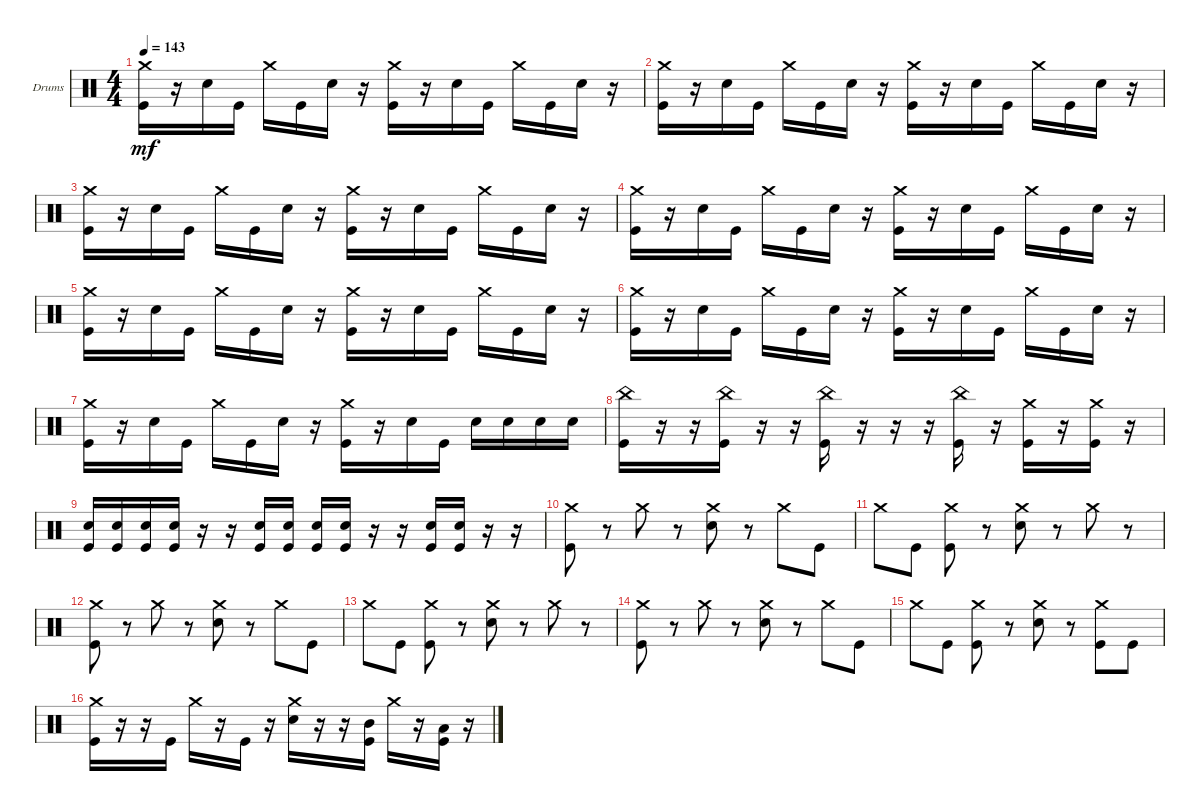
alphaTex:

\defaultSystemsLayout 4
\bracketExtendMode groupsimilarinstruments
\firstSystemTrackNameOrientation horizontal
\otherSystemsTrackNameOrientation horizontal
\track ("Drumkit" "Drums") {instrument percussion}
\staff {score}
\articulation defaults
\ts (4 4)
\tempo 143
\clef neutral
\scale
0.333333
\ks c
("Kick (hit)" "Crash medium (hit)").16{dy mf} r.16 "Snare (hit) 2".16 "Kick (hit)".16 "Crash medium (hit)".16 "Kick (hit)".16 "Snare (hit) 2".16 r.16 ("Kick (hit)" "Crash medium (hit)").16 r.16 "Snare (hit) 2".16 "Kick (hit)".16 "Crash medium (hit)".16 "Kick (hit)".16 "Snare (hit) 2".16 r.16 |
\scale
0.333333 ("Kick (hit)" "Crash medium (hit)").16 r.16 "Snare (hit) 2".16 "Kick (hit)".16 "Crash medium (hit)".16 "Kick (hit)".16 "Snare (hit) 2".16 r.16 ("Kick (hit)" "Crash medium (hit)").16 r.16 "Snare (hit) 2".16 "Kick (hit)".16 "Crash medium (hit)".16 "Kick (hit)".16 "Snare (hit) 2".16 r.16 |
\scale
0.333333 ("Kick (hit)" "Crash medium (hit)").16 r.16 "Snare (hit) 2".16 "Kick (hit)".16 "Crash medium (hit)".16 "Kick (hit)".16 "Snare (hit) 2".16 r.16 ("Kick (hit)" "Crash medium (hit)").16 r.16 "Snare (hit) 2".16 "Kick (hit)".16 "Crash medium (hit)".16 "Kick (hit)".16 "Snare (hit) 2".16 r.16 |
\scale
0.333333 ("Kick (hit)" "Crash medium (hit)").16 r.16 "Snare (hit) 2".16 "Kick (hit)".16 "Crash medium (hit)".16 "Kick (hit)".16 "Snare (hit) 2".16 r.16 ("Kick (hit)" "Crash medium (hit)").16 r.16 "Snare (hit) 2".16 "Kick (hit)".16 "Crash medium (hit)".16 "Kick (hit)".16 "Snare (hit) 2".16 r.16 |
\scale
0.333333 ("Kick (hit)" "Crash medium (hit)").16 r.16 "Snare (hit) 2".16 "Kick (hit)".16 "Crash medium (hit)".16 "Kick (hit)".16 "Snare (hit) 2".16 r.16 ("Kick (hit)" "Crash medium (hit)").16 r.16 "Snare (hit) 2".16 "Kick (hit)".16 "Crash medium (hit)".16 "Kick (hit)".16 "Snare (hit) 2".16 r.16 |
\scale
0.333333 ("Kick (hit)" "Crash medium (hit)").16 r.16 "Snare (hit) 2".16 "Kick (hit)".16 "Crash medium (hit)".16 "Kick (hit)".16 "Snare (hit) 2".16 r.16 ("Kick (hit)" "Crash medium (hit)").16 r.16 "Snare (hit) 2".16 "Kick (hit)".16 "Crash medium (hit)".16 "Kick (hit)".16 "Snare (hit) 2".16 r.16 |
\scale
0.333333 ("Kick (hit)" "Crash medium (hit)").16 r.16 "Snare (hit) 2".16 "Kick (hit)".16 "Crash medium (hit)".16 "Kick (hit)".16 "Snare (hit) 2".16 r.16 ("Kick (hit)" "Crash medium (hit)").16 r.16 "Snare (hit) 2".16 "Kick (hit)".16 "Snare (hit) 2".16 "Snare (hit) 2".16 "Snare (hit) 2".16 "Snare (hit) 2".16 |
\scale
0.333333 ("Kick (hit)" "China (hit)").16 r.16 r.16 ("Kick (hit)" "China (hit)").16 r.16 r.16 ("Kick (hit)" "China (hit)").16 r.16 r.16 r.16 ("Kick (hit)" "China (hit)").16 r.16 ("Kick (hit)" "Crash medium (hit)").16 r.16 ("Kick (hit)" "Crash medium (hit)").16 r.16 |
\scale
0.333333 ("Kick (hit)" "Snare (hit) 2").16 ("Kick (hit)" "Snare (hit) 2").16 ("Kick (hit)" "Snare (hit) 2").16 ("Kick (hit)" "Snare (hit) 2").16 r.16 r.16 ("Kick (hit)" "Snare (hit) 2").16 ("Kick (hit)" "Snare (hit) 2").16 ("Kick (hit)" "Snare (hit) 2").16 ("Kick (hit)" "Snare (hit) 2").16 r.16 r.16 ("Kick (hit)" "Snare (hit) 2").16 ("Kick (hit)" "Snare (hit) 2").16 r.16 r.16 |
\scale
0.333333 ("Kick (hit)" "Crash medium (hit)").8 r.8 "Crash medium (hit)".8 r.8 ("Snare (hit) 2" "Crash medium (hit)").8 r.8 "Crash medium (hit)".8 "Kick (hit)".8 |
\scale
0.333333 "Crash medium (hit)".8 "Kick (hit)".8 ("Kick (hit)" "Crash medium (hit)").8 r.8 ("Snare (hit) 2" "Crash medium (hit)").8 r.8 "Crash medium (hit)".8 r.8 |
\scale
0.333333 ("Kick (hit)" "Crash medium (hit)").8 r.8 "Crash medium (hit)".8 r.8 ("Snare (hit) 2" "Crash medium (hit)").8 r.8 "Crash medium (hit)".8 "Kick (hit)".8 |
\scale
0.333333 "Crash medium (hit)".8 "Kick (hit)".8 ("Kick (hit)" "Crash medium (hit)").8 r.8 ("Snare (hit) 2" "Crash medium (hit)").8 r.8 "Crash medium (hit)".8 r.8 |
\scale
0.333333 ("Kick (hit)" "Crash medium (hit)").8 r.8 "Crash medium (hit)".8 r.8 ("Snare (hit) 2" "Crash medium (hit)").8 r.8 "Crash medium (hit)".8 "Kick (hit)".8 |
\scale
0.333333 "Crash medium (hit)".8 "Kick (hit)".8 ("Kick (hit)" "Crash medium (hit)").8 r.8 ("Snare (hit) 2" "Crash medium (hit)").8 r.8 ("Crash medium (hit)" "Kick (hit)").8 "Kick (hit)".8 |
\scale
0.333333 ("Kick (hit)" "Crash medium (hit)").16 r.16 r.16 "Kick (hit)".16 "Crash medium (hit)".16 r.16 "Kick (hit)".16 r.16 ("Snare (hit) 2" "Crash medium (hit)").16 r.16 r.16 ("Kick (hit)" "Mid Tom (hit)").16 "Crash medium (hit)".16 r.16 ("Kick (hit)" "Low Tom (hit)").16 r.16
